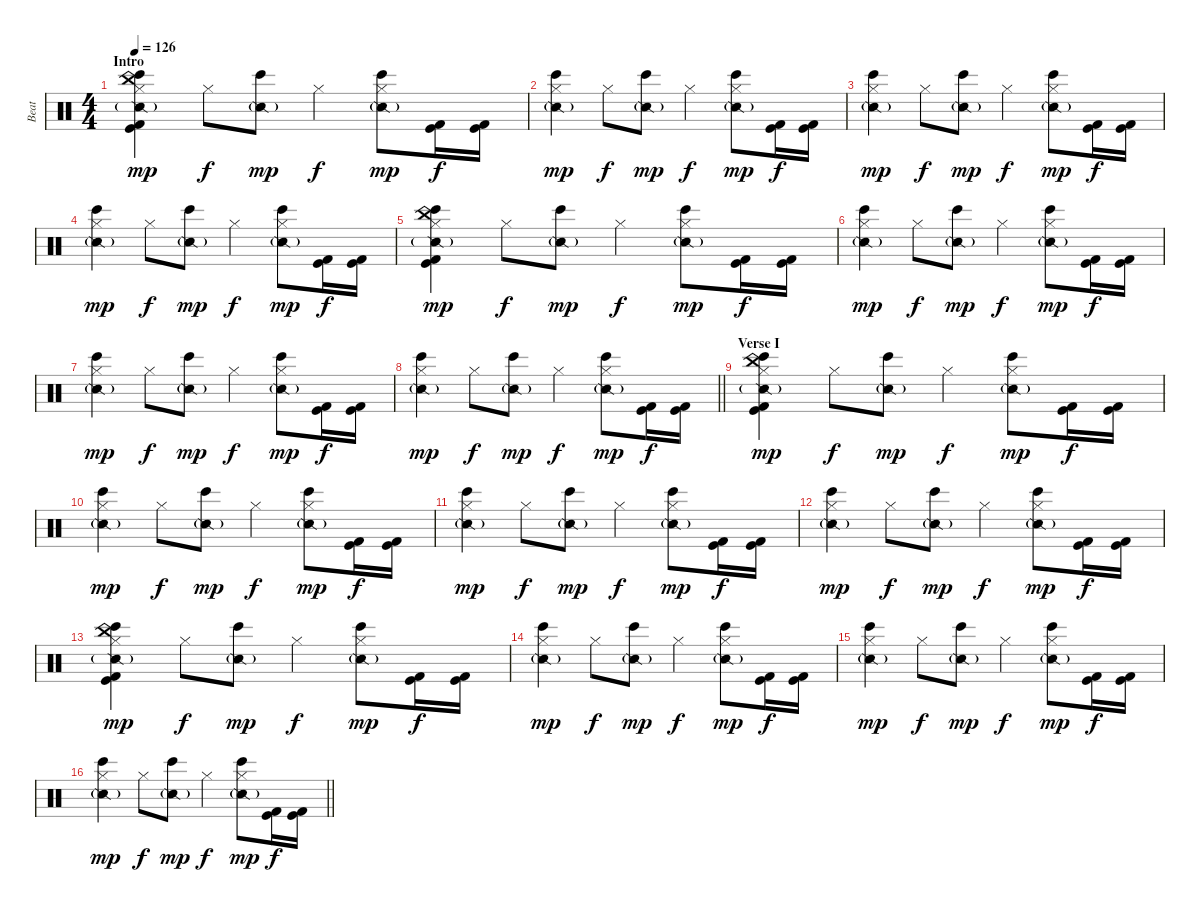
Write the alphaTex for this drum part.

\track ("Beat" "Beat") {instrument percussion}
\staff {score}
\articulation defaults
\ts (4 4)
\section ("" "Intro")
\tempo 126
\clef neutral
\ks c
("China (hit)" "Hi-Hat (closed)" "Bongo High (hit)" "Snare (side stick) 2"{g} "Kick (hit)" "Kick (hit) 2").4{dy mp} "Hi-Hat (closed)".8{dy f} ("Bongo High (hit)" "Snare (side stick) 2"{g}).8{dy mp} "Hi-Hat (closed)".4{dy f} ("Hi-Hat (closed)" "Bongo High (hit)" "Snare (side stick) 2"{g}).8{dy mp} ("Kick (hit)" "Kick (hit) 2").16{dy f} ("Kick (hit)" "Kick (hit) 2").16 |
("Hi-Hat (closed)" "Bongo High (hit)" "Snare (side stick) 2"{g}).4{dy mp} "Hi-Hat (closed)".8{dy f} ("Bongo High (hit)" "Snare (side stick) 2"{g}).8{dy mp} "Hi-Hat (closed)".4{dy f} ("Hi-Hat (closed)" "Bongo High (hit)" "Snare (side stick) 2"{g}).8{dy mp} ("Kick (hit)" "Kick (hit) 2").16{dy f} ("Kick (hit)" "Kick (hit) 2").16 |
("Hi-Hat (closed)" "Bongo High (hit)" "Snare (side stick) 2"{g}).4{dy mp} "Hi-Hat (closed)".8{dy f} ("Bongo High (hit)" "Snare (side stick) 2"{g}).8{dy mp} "Hi-Hat (closed)".4{dy f} ("Hi-Hat (closed)" "Bongo High (hit)" "Snare (side stick) 2"{g}).8{dy mp} ("Kick (hit)" "Kick (hit) 2").16{dy f} ("Kick (hit)" "Kick (hit) 2").16 |
("Hi-Hat (closed)" "Bongo High (hit)" "Snare (side stick) 2"{g}).4{dy mp} "Hi-Hat (closed)".8{dy f} ("Bongo High (hit)" "Snare (side stick) 2"{g}).8{dy mp} "Hi-Hat (closed)".4{dy f} ("Hi-Hat (closed)" "Bongo High (hit)" "Snare (side stick) 2"{g}).8{dy mp} ("Kick (hit)" "Kick (hit) 2").16{dy f} ("Kick (hit)" "Kick (hit) 2").16 |
("China (hit)" "Hi-Hat (closed)" "Bongo High (hit)" "Snare (side stick) 2"{g} "Kick (hit)" "Kick (hit) 2").4{dy mp} "Hi-Hat (closed)".8{dy f} ("Bongo High (hit)" "Snare (side stick) 2"{g}).8{dy mp} "Hi-Hat (closed)".4{dy f} ("Hi-Hat (closed)" "Bongo High (hit)" "Snare (side stick) 2"{g}).8{dy mp} ("Kick (hit)" "Kick (hit) 2").16{dy f} ("Kick (hit)" "Kick (hit) 2").16 |
("Hi-Hat (closed)" "Bongo High (hit)" "Snare (side stick) 2"{g}).4{dy mp} "Hi-Hat (closed)".8{dy f} ("Bongo High (hit)" "Snare (side stick) 2"{g}).8{dy mp} "Hi-Hat (closed)".4{dy f} ("Hi-Hat (closed)" "Bongo High (hit)" "Snare (side stick) 2"{g}).8{dy mp} ("Kick (hit)" "Kick (hit) 2").16{dy f} ("Kick (hit)" "Kick (hit) 2").16 |
("Hi-Hat (closed)" "Bongo High (hit)" "Snare (side stick) 2"{g}).4{dy mp} "Hi-Hat (closed)".8{dy f} ("Bongo High (hit)" "Snare (side stick) 2"{g}).8{dy mp} "Hi-Hat (closed)".4{dy f} ("Hi-Hat (closed)" "Bongo High (hit)" "Snare (side stick) 2"{g}).8{dy mp} ("Kick (hit)" "Kick (hit) 2").16{dy f} ("Kick (hit)" "Kick (hit) 2").16 |
\barLineRight lightlight
("Hi-Hat (closed)" "Bongo High (hit)" "Snare (side stick) 2"{g}).4{dy mp} "Hi-Hat (closed)".8{dy f} ("Bongo High (hit)" "Snare (side stick) 2"{g}).8{dy mp} "Hi-Hat (closed)".4{dy f} ("Hi-Hat (closed)" "Bongo High (hit)" "Snare (side stick) 2"{g}).8{dy mp} ("Kick (hit)" "Kick (hit) 2").16{dy f} ("Kick (hit)" "Kick (hit) 2").16 |
\section ("" "Verse I")
("China (hit)" "Hi-Hat (closed)" "Bongo High (hit)" "Snare (side stick) 2"{g} "Kick (hit)" "Kick (hit) 2").4{dy mp} "Hi-Hat (closed)".8{dy f} ("Bongo High (hit)" "Snare (side stick) 2"{g}).8{dy mp} "Hi-Hat (closed)".4{dy f} ("Hi-Hat (closed)" "Bongo High (hit)" "Snare (side stick) 2"{g}).8{dy mp} ("Kick (hit)" "Kick (hit) 2").16{dy f} ("Kick (hit)" "Kick (hit) 2").16 |
("Hi-Hat (closed)" "Bongo High (hit)" "Snare (side stick) 2"{g}).4{dy mp} "Hi-Hat (closed)".8{dy f} ("Bongo High (hit)" "Snare (side stick) 2"{g}).8{dy mp} "Hi-Hat (closed)".4{dy f} ("Hi-Hat (closed)" "Bongo High (hit)" "Snare (side stick) 2"{g}).8{dy mp} ("Kick (hit)" "Kick (hit) 2").16{dy f} ("Kick (hit)" "Kick (hit) 2").16 |
("Hi-Hat (closed)" "Bongo High (hit)" "Snare (side stick) 2"{g}).4{dy mp} "Hi-Hat (closed)".8{dy f} ("Bongo High (hit)" "Snare (side stick) 2"{g}).8{dy mp} "Hi-Hat (closed)".4{dy f} ("Hi-Hat (closed)" "Bongo High (hit)" "Snare (side stick) 2"{g}).8{dy mp} ("Kick (hit)" "Kick (hit) 2").16{dy f} ("Kick (hit)" "Kick (hit) 2").16 |
("Hi-Hat (closed)" "Bongo High (hit)" "Snare (side stick) 2"{g}).4{dy mp} "Hi-Hat (closed)".8{dy f} ("Bongo High (hit)" "Snare (side stick) 2"{g}).8{dy mp} "Hi-Hat (closed)".4{dy f} ("Hi-Hat (closed)" "Bongo High (hit)" "Snare (side stick) 2"{g}).8{dy mp} ("Kick (hit)" "Kick (hit) 2").16{dy f} ("Kick (hit)" "Kick (hit) 2").16 |
("China (hit)" "Hi-Hat (closed)" "Bongo High (hit)" "Snare (side stick) 2"{g} "Kick (hit)" "Kick (hit) 2").4{dy mp} "Hi-Hat (closed)".8{dy f} ("Bongo High (hit)" "Snare (side stick) 2"{g}).8{dy mp} "Hi-Hat (closed)".4{dy f} ("Hi-Hat (closed)" "Bongo High (hit)" "Snare (side stick) 2"{g}).8{dy mp} ("Kick (hit)" "Kick (hit) 2").16{dy f} ("Kick (hit)" "Kick (hit) 2").16 |
("Hi-Hat (closed)" "Bongo High (hit)" "Snare (side stick) 2"{g}).4{dy mp} "Hi-Hat (closed)".8{dy f} ("Bongo High (hit)" "Snare (side stick) 2"{g}).8{dy mp} "Hi-Hat (closed)".4{dy f} ("Hi-Hat (closed)" "Bongo High (hit)" "Snare (side stick) 2"{g}).8{dy mp} ("Kick (hit)" "Kick (hit) 2").16{dy f} ("Kick (hit)" "Kick (hit) 2").16 |
("Hi-Hat (closed)" "Bongo High (hit)" "Snare (side stick) 2"{g}).4{dy mp} "Hi-Hat (closed)".8{dy f} ("Bongo High (hit)" "Snare (side stick) 2"{g}).8{dy mp} "Hi-Hat (closed)".4{dy f} ("Hi-Hat (closed)" "Bongo High (hit)" "Snare (side stick) 2"{g}).8{dy mp} ("Kick (hit)" "Kick (hit) 2").16{dy f} ("Kick (hit)" "Kick (hit) 2").16 |
\barLineRight lightlight
("Hi-Hat (closed)" "Bongo High (hit)" "Snare (side stick) 2"{g}).4{dy mp} "Hi-Hat (closed)".8{dy f} ("Bongo High (hit)" "Snare (side stick) 2"{g}).8{dy mp} "Hi-Hat (closed)".4{dy f} ("Hi-Hat (closed)" "Bongo High (hit)" "Snare (side stick) 2"{g}).8{dy mp} ("Kick (hit)" "Kick (hit) 2").16{dy f} ("Kick (hit)" "Kick (hit) 2").16
